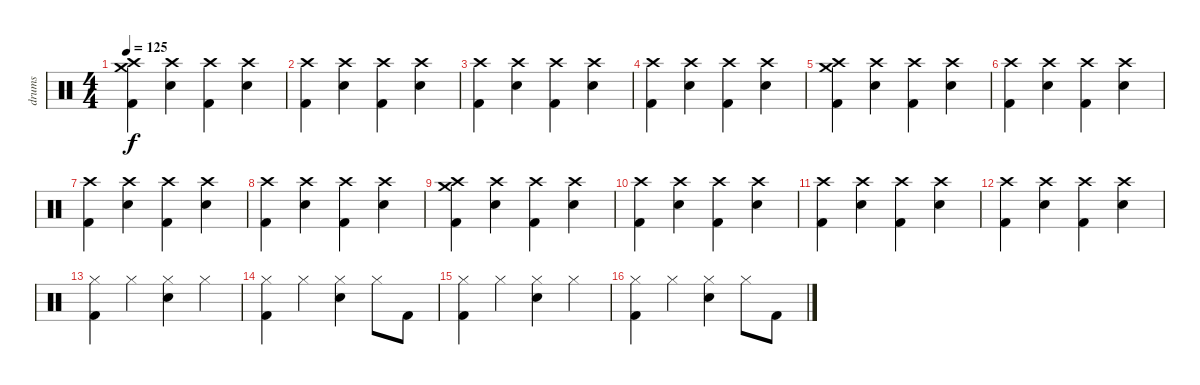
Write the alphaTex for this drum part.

\track ("drums" "drums") {instrument percussion}
\staff {score}
\articulation defaults
\ts (4 4)
\tempo 125
\clef neutral
\ks c
("Crash high (hit)" "Crash medium (hit)" "Kick (hit) 2").4{dy f} ("Crash high (hit)" "Snare (hit) 2").4 ("Crash high (hit)" "Kick (hit) 2").4 ("Crash high (hit)" "Snare (hit) 2").4 |
("Crash high (hit)" "Kick (hit) 2").4 ("Crash high (hit)" "Snare (hit) 2").4 ("Crash high (hit)" "Kick (hit) 2").4 ("Crash high (hit)" "Snare (hit) 2").4 |
("Crash high (hit)" "Kick (hit) 2").4 ("Crash high (hit)" "Snare (hit) 2").4 ("Crash high (hit)" "Kick (hit) 2").4 ("Crash high (hit)" "Snare (hit) 2").4 |
("Crash high (hit)" "Kick (hit) 2").4 ("Crash high (hit)" "Snare (hit) 2").4 ("Crash high (hit)" "Kick (hit) 2").4 ("Crash high (hit)" "Snare (hit) 2").4 |
("Crash high (hit)" "Crash medium (hit)" "Kick (hit) 2").4 ("Crash high (hit)" "Snare (hit) 2").4 ("Crash high (hit)" "Kick (hit) 2").4 ("Crash high (hit)" "Snare (hit) 2").4 |
("Crash high (hit)" "Kick (hit) 2").4 ("Crash high (hit)" "Snare (hit) 2").4 ("Crash high (hit)" "Kick (hit) 2").4 ("Crash high (hit)" "Snare (hit) 2").4 |
("Crash high (hit)" "Kick (hit) 2").4 ("Crash high (hit)" "Snare (hit) 2").4 ("Crash high (hit)" "Kick (hit) 2").4 ("Crash high (hit)" "Snare (hit) 2").4 |
("Crash high (hit)" "Kick (hit) 2").4 ("Crash high (hit)" "Snare (hit) 2").4 ("Crash high (hit)" "Kick (hit) 2").4 ("Crash high (hit)" "Snare (hit) 2").4 |
("Crash high (hit)" "Crash medium (hit)" "Kick (hit) 2").4 ("Crash high (hit)" "Snare (hit) 2").4 ("Crash high (hit)" "Kick (hit) 2").4 ("Crash high (hit)" "Snare (hit) 2").4 |
("Crash high (hit)" "Kick (hit) 2").4 ("Crash high (hit)" "Snare (hit) 2").4 ("Crash high (hit)" "Kick (hit) 2").4 ("Crash high (hit)" "Snare (hit) 2").4 |
("Crash high (hit)" "Kick (hit) 2").4 ("Crash high (hit)" "Snare (hit) 2").4 ("Crash high (hit)" "Kick (hit) 2").4 ("Crash high (hit)" "Snare (hit) 2").4 |
("Crash high (hit)" "Kick (hit) 2").4 ("Crash high (hit)" "Snare (hit) 2").4 ("Crash high (hit)" "Kick (hit) 2").4 ("Crash high (hit)" "Snare (hit) 2").4 |
("Hi-Hat (closed)" "Kick (hit) 2").4 "Hi-Hat (closed)".4 ("Hi-Hat (closed)" "Snare (hit) 2").4 "Hi-Hat (closed)".4 |
("Hi-Hat (closed)" "Kick (hit) 2").4 "Hi-Hat (closed)".4 ("Hi-Hat (closed)" "Snare (hit) 2").4 "Hi-Hat (closed)".8 "Kick (hit) 2".8 |
("Hi-Hat (closed)" "Kick (hit) 2").4 "Hi-Hat (closed)".4 ("Hi-Hat (closed)" "Snare (hit) 2").4 "Hi-Hat (closed)".4 |
("Hi-Hat (closed)" "Kick (hit) 2").4 "Hi-Hat (closed)".4 ("Hi-Hat (closed)" "Snare (hit) 2").4 "Hi-Hat (closed)".8 "Kick (hit) 2".8
